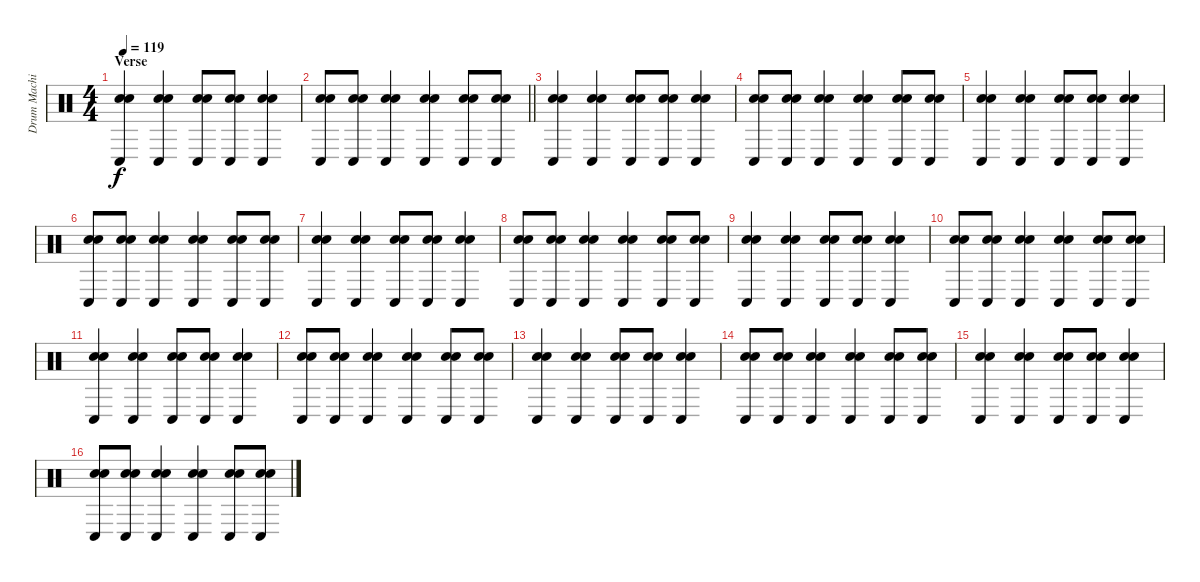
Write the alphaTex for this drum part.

\track ("Drum Machine" "Drum Machi") {instrument percussion}
\staff {score}
\articulation defaults
\ts (4 4)
\section ("" "Verse")
\tempo 119
\clef neutral
\ks c
("Hand Clap (hit)" "Hand Clap (hit)" "Conga low (hit)").4{dy f} ("Hand Clap (hit)" "Hand Clap (hit)" "Conga low (hit)").4 ("Hand Clap (hit)" "Hand Clap (hit)" "Conga low (hit)").8 ("Hand Clap (hit)" "Hand Clap (hit)" "Conga low (hit)").8 ("Hand Clap (hit)" "Hand Clap (hit)" "Conga low (hit)").4 |
\barLineRight lightlight
("Hand Clap (hit)" "Hand Clap (hit)" "Conga low (hit)").8 ("Hand Clap (hit)" "Hand Clap (hit)" "Conga low (hit)").8 ("Hand Clap (hit)" "Hand Clap (hit)" "Conga low (hit)").4 ("Hand Clap (hit)" "Hand Clap (hit)" "Conga low (hit)").4 ("Hand Clap (hit)" "Hand Clap (hit)" "Conga low (hit)").8 ("Hand Clap (hit)" "Hand Clap (hit)" "Conga low (hit)").8 |
\section ("" "")
("Hand Clap (hit)" "Hand Clap (hit)" "Conga low (hit)").4 ("Hand Clap (hit)" "Hand Clap (hit)" "Conga low (hit)").4 ("Hand Clap (hit)" "Hand Clap (hit)" "Conga low (hit)").8 ("Hand Clap (hit)" "Hand Clap (hit)" "Conga low (hit)").8 ("Hand Clap (hit)" "Hand Clap (hit)" "Conga low (hit)").4 |
("Hand Clap (hit)" "Hand Clap (hit)" "Conga low (hit)").8 ("Hand Clap (hit)" "Hand Clap (hit)" "Conga low (hit)").8 ("Hand Clap (hit)" "Hand Clap (hit)" "Conga low (hit)").4 ("Hand Clap (hit)" "Hand Clap (hit)" "Conga low (hit)").4 ("Hand Clap (hit)" "Hand Clap (hit)" "Conga low (hit)").8 ("Hand Clap (hit)" "Hand Clap (hit)" "Conga low (hit)").8 |
("Hand Clap (hit)" "Hand Clap (hit)" "Conga low (hit)").4 ("Hand Clap (hit)" "Hand Clap (hit)" "Conga low (hit)").4 ("Hand Clap (hit)" "Hand Clap (hit)" "Conga low (hit)").8 ("Hand Clap (hit)" "Hand Clap (hit)" "Conga low (hit)").8 ("Hand Clap (hit)" "Hand Clap (hit)" "Conga low (hit)").4 |
("Hand Clap (hit)" "Hand Clap (hit)" "Conga low (hit)").8 ("Hand Clap (hit)" "Hand Clap (hit)" "Conga low (hit)").8 ("Hand Clap (hit)" "Hand Clap (hit)" "Conga low (hit)").4 ("Hand Clap (hit)" "Hand Clap (hit)" "Conga low (hit)").4 ("Hand Clap (hit)" "Hand Clap (hit)" "Conga low (hit)").8 ("Hand Clap (hit)" "Hand Clap (hit)" "Conga low (hit)").8 |
("Hand Clap (hit)" "Hand Clap (hit)" "Conga low (hit)").4 ("Hand Clap (hit)" "Hand Clap (hit)" "Conga low (hit)").4 ("Hand Clap (hit)" "Hand Clap (hit)" "Conga low (hit)").8 ("Hand Clap (hit)" "Hand Clap (hit)" "Conga low (hit)").8 ("Hand Clap (hit)" "Hand Clap (hit)" "Conga low (hit)").4 |
("Hand Clap (hit)" "Hand Clap (hit)" "Conga low (hit)").8 ("Hand Clap (hit)" "Hand Clap (hit)" "Conga low (hit)").8 ("Hand Clap (hit)" "Hand Clap (hit)" "Conga low (hit)").4 ("Hand Clap (hit)" "Hand Clap (hit)" "Conga low (hit)").4 ("Hand Clap (hit)" "Hand Clap (hit)" "Conga low (hit)").8 ("Hand Clap (hit)" "Hand Clap (hit)" "Conga low (hit)").8 |
("Hand Clap (hit)" "Hand Clap (hit)" "Conga low (hit)").4 ("Hand Clap (hit)" "Hand Clap (hit)" "Conga low (hit)").4 ("Hand Clap (hit)" "Hand Clap (hit)" "Conga low (hit)").8 ("Hand Clap (hit)" "Hand Clap (hit)" "Conga low (hit)").8 ("Hand Clap (hit)" "Hand Clap (hit)" "Conga low (hit)").4 |
("Hand Clap (hit)" "Hand Clap (hit)" "Conga low (hit)").8 ("Hand Clap (hit)" "Hand Clap (hit)" "Conga low (hit)").8 ("Hand Clap (hit)" "Hand Clap (hit)" "Conga low (hit)").4 ("Hand Clap (hit)" "Hand Clap (hit)" "Conga low (hit)").4 ("Hand Clap (hit)" "Hand Clap (hit)" "Conga low (hit)").8 ("Hand Clap (hit)" "Hand Clap (hit)" "Conga low (hit)").8 |
("Hand Clap (hit)" "Hand Clap (hit)" "Conga low (hit)").4 ("Hand Clap (hit)" "Hand Clap (hit)" "Conga low (hit)").4 ("Hand Clap (hit)" "Hand Clap (hit)" "Conga low (hit)").8 ("Hand Clap (hit)" "Hand Clap (hit)" "Conga low (hit)").8 ("Hand Clap (hit)" "Hand Clap (hit)" "Conga low (hit)").4 |
("Hand Clap (hit)" "Hand Clap (hit)" "Conga low (hit)").8 ("Hand Clap (hit)" "Hand Clap (hit)" "Conga low (hit)").8 ("Hand Clap (hit)" "Hand Clap (hit)" "Conga low (hit)").4 ("Hand Clap (hit)" "Hand Clap (hit)" "Conga low (hit)").4 ("Hand Clap (hit)" "Hand Clap (hit)" "Conga low (hit)").8 ("Hand Clap (hit)" "Hand Clap (hit)" "Conga low (hit)").8 |
("Hand Clap (hit)" "Hand Clap (hit)" "Conga low (hit)").4 ("Hand Clap (hit)" "Hand Clap (hit)" "Conga low (hit)").4 ("Hand Clap (hit)" "Hand Clap (hit)" "Conga low (hit)").8 ("Hand Clap (hit)" "Hand Clap (hit)" "Conga low (hit)").8 ("Hand Clap (hit)" "Hand Clap (hit)" "Conga low (hit)").4 |
("Hand Clap (hit)" "Hand Clap (hit)" "Conga low (hit)").8 ("Hand Clap (hit)" "Hand Clap (hit)" "Conga low (hit)").8 ("Hand Clap (hit)" "Hand Clap (hit)" "Conga low (hit)").4 ("Hand Clap (hit)" "Hand Clap (hit)" "Conga low (hit)").4 ("Hand Clap (hit)" "Hand Clap (hit)" "Conga low (hit)").8 ("Hand Clap (hit)" "Hand Clap (hit)" "Conga low (hit)").8 |
("Hand Clap (hit)" "Hand Clap (hit)" "Conga low (hit)").4 ("Hand Clap (hit)" "Hand Clap (hit)" "Conga low (hit)").4 ("Hand Clap (hit)" "Hand Clap (hit)" "Conga low (hit)").8 ("Hand Clap (hit)" "Hand Clap (hit)" "Conga low (hit)").8 ("Hand Clap (hit)" "Hand Clap (hit)" "Conga low (hit)").4 |
("Hand Clap (hit)" "Hand Clap (hit)" "Conga low (hit)").8 ("Hand Clap (hit)" "Hand Clap (hit)" "Conga low (hit)").8 ("Hand Clap (hit)" "Hand Clap (hit)" "Conga low (hit)").4 ("Hand Clap (hit)" "Hand Clap (hit)" "Conga low (hit)").4 ("Hand Clap (hit)" "Hand Clap (hit)" "Conga low (hit)").8 ("Hand Clap (hit)" "Hand Clap (hit)" "Conga low (hit)").8
